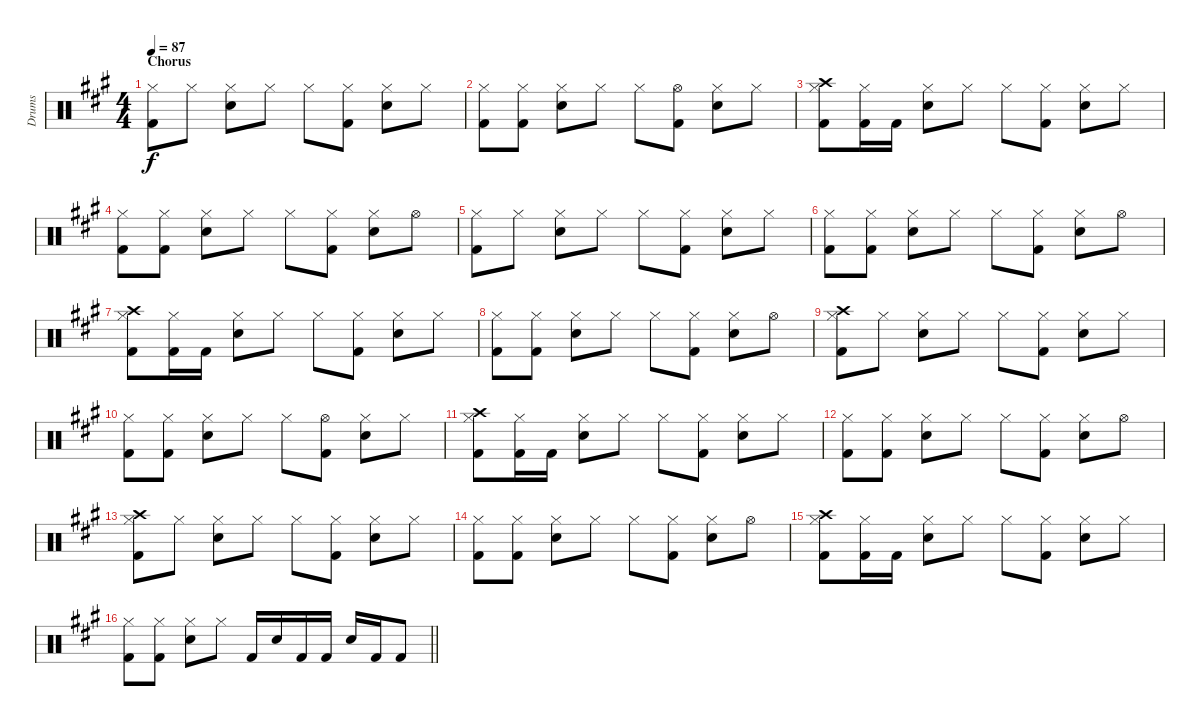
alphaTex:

\track ("Drums" "Drums") {instrument percussion}
\staff {score}
\articulation defaults
\ts (4 4)
\section ("" "Chorus ")
\tempo 87
\clef neutral
\ks a
("Hi-Hat (closed)" "Kick (hit) 2").8{dy f} "Hi-Hat (closed)".8 ("Hi-Hat (closed)" "Electric Snare (hit)").8 "Hi-Hat (closed)".8 "Hi-Hat (closed)".8 ("Hi-Hat (closed)" "Kick (hit) 2").8 ("Hi-Hat (closed)" "Electric Snare (hit)").8 "Hi-Hat (closed)".8 |
("Hi-Hat (closed)" "Kick (hit) 2").8 ("Hi-Hat (closed)" "Kick (hit) 2").8 ("Hi-Hat (closed)" "Electric Snare (hit)").8 "Hi-Hat (closed)".8 "Hi-Hat (closed)".8 ("Hi-Hat (open)" "Kick (hit) 2").8 ("Hi-Hat (closed)" "Electric Snare (hit)").8 "Hi-Hat (closed)".8 |
("Crash high (hit)" "Hi-Hat (closed)" "Kick (hit) 2").8 ("Hi-Hat (closed)" "Kick (hit) 2").16 "Kick (hit) 2".16 ("Hi-Hat (closed)" "Electric Snare (hit)").8 "Hi-Hat (closed)".8 "Hi-Hat (closed)".8 ("Hi-Hat (closed)" "Kick (hit) 2").8 ("Hi-Hat (closed)" "Electric Snare (hit)").8 "Hi-Hat (closed)".8 |
("Hi-Hat (closed)" "Kick (hit) 2").8 ("Hi-Hat (closed)" "Kick (hit) 2").8 ("Hi-Hat (closed)" "Electric Snare (hit)").8 "Hi-Hat (closed)".8 "Hi-Hat (closed)".8 ("Hi-Hat (closed)" "Kick (hit) 2").8 ("Hi-Hat (closed)" "Electric Snare (hit)").8 "Hi-Hat (open)".8 |
("Hi-Hat (closed)" "Kick (hit) 2").8 "Hi-Hat (closed)".8 ("Hi-Hat (closed)" "Electric Snare (hit)").8 "Hi-Hat (closed)".8 "Hi-Hat (closed)".8 ("Hi-Hat (closed)" "Kick (hit) 2").8 ("Hi-Hat (closed)" "Electric Snare (hit)").8 "Hi-Hat (closed)".8 |
("Hi-Hat (closed)" "Kick (hit) 2").8 ("Hi-Hat (closed)" "Kick (hit) 2").8 ("Hi-Hat (closed)" "Electric Snare (hit)").8 "Hi-Hat (closed)".8 "Hi-Hat (closed)".8 ("Hi-Hat (closed)" "Kick (hit) 2").8 ("Hi-Hat (closed)" "Electric Snare (hit)").8 "Hi-Hat (open)".8 |
("Crash high (hit)" "Hi-Hat (closed)" "Kick (hit) 2").8 ("Hi-Hat (closed)" "Kick (hit) 2").16 "Kick (hit) 2".16 ("Hi-Hat (closed)" "Electric Snare (hit)").8 "Hi-Hat (closed)".8 "Hi-Hat (closed)".8 ("Hi-Hat (closed)" "Kick (hit) 2").8 ("Hi-Hat (closed)" "Electric Snare (hit)").8 "Hi-Hat (closed)".8 |
("Hi-Hat (closed)" "Kick (hit) 2").8 ("Hi-Hat (closed)" "Kick (hit) 2").8 ("Hi-Hat (closed)" "Electric Snare (hit)").8 "Hi-Hat (closed)".8 "Hi-Hat (closed)".8 ("Hi-Hat (closed)" "Kick (hit) 2").8 ("Hi-Hat (closed)" "Electric Snare (hit)").8 "Hi-Hat (open)".8 |
("Crash high (hit)" "Hi-Hat (closed)" "Kick (hit) 2").8 "Hi-Hat (closed)".8 ("Hi-Hat (closed)" "Electric Snare (hit)").8 "Hi-Hat (closed)".8 "Hi-Hat (closed)".8 ("Hi-Hat (closed)" "Kick (hit) 2").8 ("Hi-Hat (closed)" "Electric Snare (hit)").8 "Hi-Hat (closed)".8 |
("Hi-Hat (closed)" "Kick (hit) 2").8 ("Hi-Hat (closed)" "Kick (hit) 2").8 ("Hi-Hat (closed)" "Electric Snare (hit)").8 "Hi-Hat (closed)".8 "Hi-Hat (closed)".8 ("Hi-Hat (open)" "Kick (hit) 2").8 ("Hi-Hat (closed)" "Electric Snare (hit)").8 "Hi-Hat (closed)".8 |
("Crash high (hit)" "Hi-Hat (closed)" "Kick (hit) 2").8 ("Hi-Hat (closed)" "Kick (hit) 2").16 "Kick (hit) 2".16 ("Hi-Hat (closed)" "Electric Snare (hit)").8 "Hi-Hat (closed)".8 "Hi-Hat (closed)".8 ("Hi-Hat (closed)" "Kick (hit) 2").8 ("Hi-Hat (closed)" "Electric Snare (hit)").8 "Hi-Hat (closed)".8 |
("Hi-Hat (closed)" "Kick (hit) 2").8 ("Hi-Hat (closed)" "Kick (hit) 2").8 ("Hi-Hat (closed)" "Electric Snare (hit)").8 "Hi-Hat (closed)".8 "Hi-Hat (closed)".8 ("Hi-Hat (closed)" "Kick (hit) 2").8 ("Hi-Hat (closed)" "Electric Snare (hit)").8 "Hi-Hat (open)".8 |
("Crash high (hit)" "Hi-Hat (closed)" "Kick (hit) 2").8 "Hi-Hat (closed)".8 ("Hi-Hat (closed)" "Electric Snare (hit)").8 "Hi-Hat (closed)".8 "Hi-Hat (closed)".8 ("Hi-Hat (closed)" "Kick (hit) 2").8 ("Hi-Hat (closed)" "Electric Snare (hit)").8 "Hi-Hat (closed)".8 |
("Hi-Hat (closed)" "Kick (hit) 2").8 ("Hi-Hat (closed)" "Kick (hit) 2").8 ("Hi-Hat (closed)" "Electric Snare (hit)").8 "Hi-Hat (closed)".8 "Hi-Hat (closed)".8 ("Hi-Hat (closed)" "Kick (hit) 2").8 ("Hi-Hat (closed)" "Electric Snare (hit)").8 "Hi-Hat (open)".8 |
("Crash high (hit)" "Hi-Hat (closed)" "Kick (hit) 2").8 ("Hi-Hat (closed)" "Kick (hit) 2").16 "Kick (hit) 2".16 ("Hi-Hat (closed)" "Electric Snare (hit)").8 "Hi-Hat (closed)".8 "Hi-Hat (closed)".8 ("Hi-Hat (closed)" "Kick (hit) 2").8 ("Hi-Hat (closed)" "Electric Snare (hit)").8 "Hi-Hat (closed)".8 |
\barLineRight lightlight
("Hi-Hat (closed)" "Kick (hit) 2").8 ("Hi-Hat (closed)" "Kick (hit) 2").8 ("Hi-Hat (closed)" "Electric Snare (hit)").8 "Hi-Hat (closed)".8 "Kick (hit) 2".16 "Electric Snare (hit)".16 "Kick (hit) 2".16 "Kick (hit) 2".16 "Electric Snare (hit)".16 "Kick (hit) 2".16 "Kick (hit) 2".8
